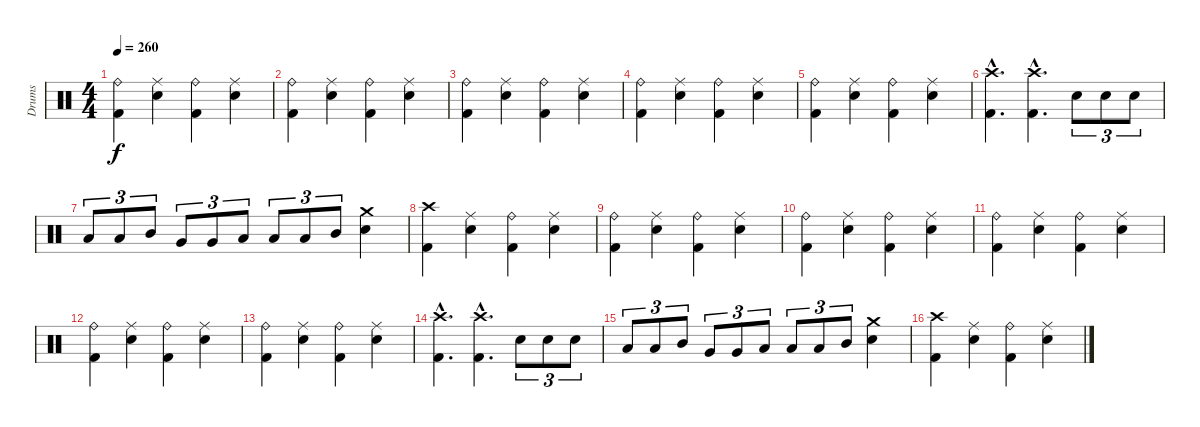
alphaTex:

\track ("Drums" "Drums") {instrument percussion}
\staff {score}
\articulation defaults
\ts (4 4)
\tempo 260
\clef neutral
\ks c
("Ride (bell)" "Kick (hit) 2").4{dy f} ("Ride (middle)" "Electric Snare (hit)").4 ("Ride (bell)" "Kick (hit) 2").4 ("Ride (middle)" "Electric Snare (hit)").4 |
("Ride (bell)" "Kick (hit) 2").4 ("Ride (middle)" "Electric Snare (hit)").4 ("Ride (bell)" "Kick (hit) 2").4 ("Ride (middle)" "Electric Snare (hit)").4 |
("Ride (bell)" "Kick (hit) 2").4 ("Ride (middle)" "Electric Snare (hit)").4 ("Ride (bell)" "Kick (hit) 2").4 ("Ride (middle)" "Electric Snare (hit)").4 |
("Ride (bell)" "Kick (hit) 2").4 ("Ride (middle)" "Electric Snare (hit)").4 ("Ride (bell)" "Kick (hit) 2").4 ("Ride (middle)" "Electric Snare (hit)").4 |
("Ride (bell)" "Kick (hit) 2").4 ("Ride (middle)" "Electric Snare (hit)").4 ("Ride (bell)" "Kick (hit) 2").4 ("Ride (middle)" "Electric Snare (hit)").4 |
("Crash high (hit)"{hac} "Kick (hit) 2"{hac}).4{d} ("Crash high (hit)"{hac} "Kick (hit) 2"{hac}).4{d} "Electric Snare (hit)".8{tu (3 2)} "Electric Snare (hit)".8{tu (3 2)} "Electric Snare (hit)".8{tu (3 2)} |
"Low Tom (hit)".8{tu (3 2)} "Low Tom (hit)".8{tu (3 2)} "Mid Tom (hit)".8{tu (3 2)} "Very Low Tom (hit)".8{tu (3 2)} "Very Low Tom (hit)".8{tu (3 2)} "Low Tom (hit)".8{tu (3 2)} "Low Tom (hit)".8{tu (3 2)} "Low Tom (hit)".8{tu (3 2)} "Mid Tom (hit)".8{tu (3 2)} ("Crash medium (hit)" "Electric Snare (hit)").4 |
("Crash high (hit)" "Kick (hit) 2").4 ("Ride (middle)" "Electric Snare (hit)").4 ("Ride (bell)" "Kick (hit) 2").4 ("Ride (middle)" "Electric Snare (hit)").4 |
("Ride (bell)" "Kick (hit) 2").4 ("Ride (middle)" "Electric Snare (hit)").4 ("Ride (bell)" "Kick (hit) 2").4 ("Ride (middle)" "Electric Snare (hit)").4 |
("Ride (bell)" "Kick (hit) 2").4 ("Ride (middle)" "Electric Snare (hit)").4 ("Ride (bell)" "Kick (hit) 2").4 ("Ride (middle)" "Electric Snare (hit)").4 |
("Ride (bell)" "Kick (hit) 2").4 ("Ride (middle)" "Electric Snare (hit)").4 ("Ride (bell)" "Kick (hit) 2").4 ("Ride (middle)" "Electric Snare (hit)").4 |
("Ride (bell)" "Kick (hit) 2").4 ("Ride (middle)" "Electric Snare (hit)").4 ("Ride (bell)" "Kick (hit) 2").4 ("Ride (middle)" "Electric Snare (hit)").4 |
("Ride (bell)" "Kick (hit) 2").4 ("Ride (middle)" "Electric Snare (hit)").4 ("Ride (bell)" "Kick (hit) 2").4 ("Ride (middle)" "Electric Snare (hit)").4 |
("Crash high (hit)"{hac} "Kick (hit) 2"{hac}).4{d} ("Crash high (hit)"{hac} "Kick (hit) 2"{hac}).4{d} "Electric Snare (hit)".8{tu (3 2)} "Electric Snare (hit)".8{tu (3 2)} "Electric Snare (hit)".8{tu (3 2)} |
"Low Tom (hit)".8{tu (3 2)} "Low Tom (hit)".8{tu (3 2)} "Mid Tom (hit)".8{tu (3 2)} "Very Low Tom (hit)".8{tu (3 2)} "Very Low Tom (hit)".8{tu (3 2)} "Low Tom (hit)".8{tu (3 2)} "Low Tom (hit)".8{tu (3 2)} "Low Tom (hit)".8{tu (3 2)} "Mid Tom (hit)".8{tu (3 2)} ("Crash medium (hit)" "Electric Snare (hit)").4 |
("Crash high (hit)" "Kick (hit) 2").4 ("Ride (middle)" "Electric Snare (hit)").4 ("Ride (bell)" "Kick (hit) 2").4 ("Ride (middle)" "Electric Snare (hit)").4
